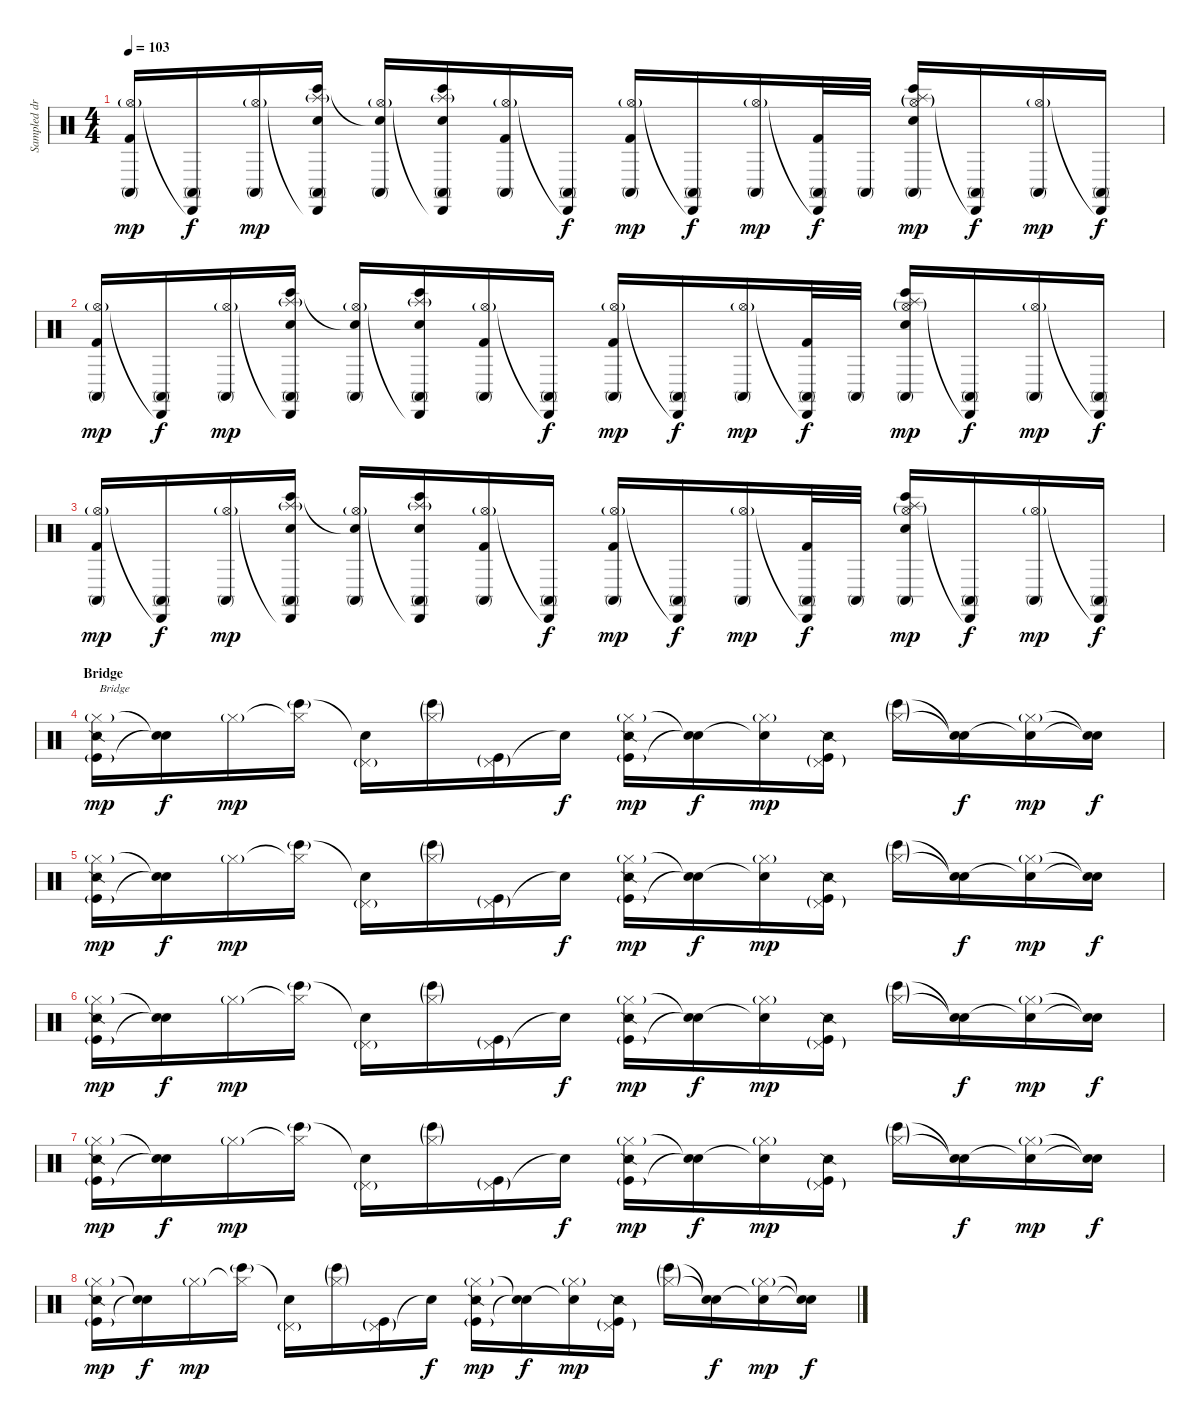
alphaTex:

\track ("Sampled drums (Rob with Joe)" "Sampled dr") {instrument percussion}
\staff {score}
\articulation defaults
\ts (4 4)
\tempo 103
\clef neutral
\ks c
("Hi-Hat (open)"{g} "Conga high (mute)" "Kick (hit) 2").16{dy mp volume 8} ("Cabasa (hit)"{t} "Conga high (mute)").16{dy f} ("Hi-Hat (open)"{g} "Conga high (mute)").16{dy mp} ("Cabasa (hit)"{t} "Conga high (mute)" "Bongo High (hit)" "Snare (hit) 2" "Splash (hit)"{g}).16 ("Hi-Hat (open)"{g} "Conga high (mute)" "Snare (hit)"{t}).16 ("Cabasa (hit)"{t} "Conga high (mute)" "Bongo High (hit)" "Snare (hit) 2" "Splash (hit)"{g}).16 ("Hi-Hat (open)"{g} "Conga high (mute)" "Kick (hit) 2").16 ("Cabasa (hit)"{t} "Conga high (mute)").16{dy f} ("Hi-Hat (open)"{g} "Conga high (mute)" "Kick (hit) 2").16{dy mp} ("Cabasa (hit)"{t} "Conga high (mute)").16{dy f} ("Hi-Hat (open)"{g} "Conga high (mute)").16{dy mp} ("Cabasa (hit)"{t} "Conga high (mute)" "Kick (hit) 2").32{dy f} "Conga high (mute)".32 ("Hi-Hat (open)"{g} "Conga high (mute)" "Bongo High (hit)" "Snare (hit) 2" "Splash (hit)"{g}).16{dy mp} ("Cabasa (hit)"{t} "Conga high (mute)").16{dy f} ("Hi-Hat (open)"{g} "Conga high (mute)").16{dy mp} ("Cabasa (hit)"{t} "Conga high (mute)").16{dy f} |
("Hi-Hat (open)"{g} "Conga high (mute)" "Kick (hit) 2").16{dy mp volume 8} ("Cabasa (hit)"{t} "Conga high (mute)").16{dy f} ("Hi-Hat (open)"{g} "Conga high (mute)").16{dy mp} ("Cabasa (hit)"{t} "Conga high (mute)" "Bongo High (hit)" "Snare (hit) 2" "Splash (hit)"{g}).16 ("Hi-Hat (open)"{g} "Conga high (mute)" "Snare (hit)"{t}).16 ("Cabasa (hit)"{t} "Conga high (mute)" "Bongo High (hit)" "Snare (hit) 2" "Splash (hit)"{g}).16 ("Hi-Hat (open)"{g} "Conga high (mute)" "Kick (hit) 2").16 ("Cabasa (hit)"{t} "Conga high (mute)").16{dy f} ("Hi-Hat (open)"{g} "Conga high (mute)" "Kick (hit) 2").16{dy mp} ("Cabasa (hit)"{t} "Conga high (mute)").16{dy f} ("Hi-Hat (open)"{g} "Conga high (mute)").16{dy mp} ("Cabasa (hit)"{t} "Conga high (mute)" "Kick (hit) 2").32{dy f} "Conga high (mute)".32 ("Hi-Hat (open)"{g} "Conga high (mute)" "Bongo High (hit)" "Snare (hit) 2" "Splash (hit)"{g}).16{dy mp} ("Cabasa (hit)"{t} "Conga high (mute)").16{dy f} ("Hi-Hat (open)"{g} "Conga high (mute)").16{dy mp} ("Cabasa (hit)"{t} "Conga high (mute)").16{dy f} |
("Hi-Hat (open)"{g} "Conga high (mute)" "Kick (hit) 2").16{dy mp volume 8} ("Cabasa (hit)"{t} "Conga high (mute)").16{dy f} ("Hi-Hat (open)"{g} "Conga high (mute)").16{dy mp} ("Cabasa (hit)"{t} "Conga high (mute)" "Bongo High (hit)" "Snare (hit) 2" "Splash (hit)"{g}).16 ("Hi-Hat (open)"{g} "Conga high (mute)" "Snare (hit)"{t}).16 ("Cabasa (hit)"{t} "Conga high (mute)" "Bongo High (hit)" "Snare (hit) 2" "Splash (hit)"{g}).16 ("Hi-Hat (open)"{g} "Conga high (mute)" "Kick (hit) 2").16 ("Cabasa (hit)"{t} "Conga high (mute)").16{dy f} ("Hi-Hat (open)"{g} "Conga high (mute)" "Kick (hit) 2").16{dy mp} ("Cabasa (hit)"{t} "Conga high (mute)").16{dy f} ("Hi-Hat (open)"{g} "Conga high (mute)").16{dy mp} ("Cabasa (hit)"{t} "Conga high (mute)" "Kick (hit) 2").32{dy f} "Conga high (mute)".32 ("Hi-Hat (open)"{g} "Conga high (mute)" "Bongo High (hit)" "Snare (hit) 2" "Splash (hit)"{g}).16{dy mp} ("Cabasa (hit)"{t} "Conga high (mute)").16{dy f} ("Hi-Hat (open)"{g} "Conga high (mute)").16{dy mp} ("Cabasa (hit)"{t} "Conga high (mute)").16{dy f} |
\section ("" "Bridge")
("Hi-Hat (closed)"{g} "Kick (hit)"{g} "Snare (side stick) 2").16{txt "Bridge" dy mp volume 5} ("Snare (hit)"{t} "Snare (hit)"{t}).16{dy f} "Hi-Hat (closed)"{g}.16{dy mp} ("Hi-Hat (closed)"{t} "Bongo High (hit)"{g}).16 ("Pedal Hi-Hat (hit)"{g} "Snare (hit)"{t}).16 ("Hi-Hat (closed)"{g} "Bongo High (hit)"{g}).16 ("Pedal Hi-Hat (hit)"{g} "Kick (hit)"{g}).16 "Snare (hit)"{t}.16{dy f} ("Hi-Hat (closed)"{g} "Kick (hit)"{g} "Snare (side stick) 2").16{dy mp} ("Snare (hit)"{t} "Snare (hit)"{t}).16{dy f} ("Hi-Hat (closed)"{g} "Snare (hit)"{t}).16{dy mp} ("Pedal Hi-Hat (hit)"{g} "Kick (hit)"{g} "Snare (side stick) 2").16 ("Hi-Hat (closed)"{g} "Bongo High (hit)"{g}).16 ("Snare (hit)"{t} "Snare (hit)"{t}).16{dy f} ("Hi-Hat (closed)"{g} "Snare (hit)"{t}).16{dy mp} ("Snare (hit)"{t} "Snare (hit)"{t}).16{dy f} |
("Hi-Hat (closed)"{g} "Kick (hit)"{g} "Snare (side stick) 2").16{dy mp volume 5} ("Snare (hit)"{t} "Snare (hit)"{t}).16{dy f} "Hi-Hat (closed)"{g}.16{dy mp} ("Hi-Hat (closed)"{t} "Bongo High (hit)"{g}).16 ("Pedal Hi-Hat (hit)"{g} "Snare (hit)"{t}).16 ("Hi-Hat (closed)"{g} "Bongo High (hit)"{g}).16 ("Pedal Hi-Hat (hit)"{g} "Kick (hit)"{g}).16 "Snare (hit)"{t}.16{dy f} ("Hi-Hat (closed)"{g} "Kick (hit)"{g} "Snare (side stick) 2").16{dy mp} ("Snare (hit)"{t} "Snare (hit)"{t}).16{dy f} ("Hi-Hat (closed)"{g} "Snare (hit)"{t}).16{dy mp} ("Pedal Hi-Hat (hit)"{g} "Kick (hit)"{g} "Snare (side stick) 2").16 ("Hi-Hat (closed)"{g} "Bongo High (hit)"{g}).16 ("Snare (hit)"{t} "Snare (hit)"{t}).16{dy f} ("Hi-Hat (closed)"{g} "Snare (hit)"{t}).16{dy mp} ("Snare (hit)"{t} "Snare (hit)"{t}).16{dy f} |
("Hi-Hat (closed)"{g} "Kick (hit)"{g} "Snare (side stick) 2").16{dy mp volume 5} ("Snare (hit)"{t} "Snare (hit)"{t}).16{dy f} "Hi-Hat (closed)"{g}.16{dy mp} ("Hi-Hat (closed)"{t} "Bongo High (hit)"{g}).16 ("Pedal Hi-Hat (hit)"{g} "Snare (hit)"{t}).16 ("Hi-Hat (closed)"{g} "Bongo High (hit)"{g}).16 ("Pedal Hi-Hat (hit)"{g} "Kick (hit)"{g}).16 "Snare (hit)"{t}.16{dy f} ("Hi-Hat (closed)"{g} "Kick (hit)"{g} "Snare (side stick) 2").16{dy mp} ("Snare (hit)"{t} "Snare (hit)"{t}).16{dy f} ("Hi-Hat (closed)"{g} "Snare (hit)"{t}).16{dy mp} ("Pedal Hi-Hat (hit)"{g} "Kick (hit)"{g} "Snare (side stick) 2").16 ("Hi-Hat (closed)"{g} "Bongo High (hit)"{g}).16 ("Snare (hit)"{t} "Snare (hit)"{t}).16{dy f} ("Hi-Hat (closed)"{g} "Snare (hit)"{t}).16{dy mp} ("Snare (hit)"{t} "Snare (hit)"{t}).16{dy f} |
("Hi-Hat (closed)"{g} "Kick (hit)"{g} "Snare (side stick) 2").16{dy mp volume 5} ("Snare (hit)"{t} "Snare (hit)"{t}).16{dy f} "Hi-Hat (closed)"{g}.16{dy mp} ("Hi-Hat (closed)"{t} "Bongo High (hit)"{g}).16 ("Pedal Hi-Hat (hit)"{g} "Snare (hit)"{t}).16 ("Hi-Hat (closed)"{g} "Bongo High (hit)"{g}).16 ("Pedal Hi-Hat (hit)"{g} "Kick (hit)"{g}).16 "Snare (hit)"{t}.16{dy f} ("Hi-Hat (closed)"{g} "Kick (hit)"{g} "Snare (side stick) 2").16{dy mp} ("Snare (hit)"{t} "Snare (hit)"{t}).16{dy f} ("Hi-Hat (closed)"{g} "Snare (hit)"{t}).16{dy mp} ("Pedal Hi-Hat (hit)"{g} "Kick (hit)"{g} "Snare (side stick) 2").16 ("Hi-Hat (closed)"{g} "Bongo High (hit)"{g}).16 ("Snare (hit)"{t} "Snare (hit)"{t}).16{dy f} ("Hi-Hat (closed)"{g} "Snare (hit)"{t}).16{dy mp} ("Snare (hit)"{t} "Snare (hit)"{t}).16{dy f} |
("Hi-Hat (closed)"{g} "Kick (hit)"{g} "Snare (side stick) 2").16{dy mp volume 5} ("Snare (hit)"{t} "Snare (hit)"{t}).16{dy f} "Hi-Hat (closed)"{g}.16{dy mp} ("Hi-Hat (closed)"{t} "Bongo High (hit)"{g}).16 ("Pedal Hi-Hat (hit)"{g} "Snare (hit)"{t}).16 ("Hi-Hat (closed)"{g} "Bongo High (hit)"{g}).16 ("Pedal Hi-Hat (hit)"{g} "Kick (hit)"{g}).16 "Snare (hit)"{t}.16{dy f} ("Hi-Hat (closed)"{g} "Kick (hit)"{g} "Snare (side stick) 2").16{dy mp} ("Snare (hit)"{t} "Snare (hit)"{t}).16{dy f} ("Hi-Hat (closed)"{g} "Snare (hit)"{t}).16{dy mp} ("Pedal Hi-Hat (hit)"{g} "Kick (hit)"{g} "Snare (side stick) 2").16 ("Hi-Hat (closed)"{g} "Bongo High (hit)"{g}).16 ("Snare (hit)"{t} "Snare (hit)"{t}).16{dy f} ("Hi-Hat (closed)"{g} "Snare (hit)"{t}).16{dy mp} ("Snare (hit)"{t} "Snare (hit)"{t}).16{dy f}
